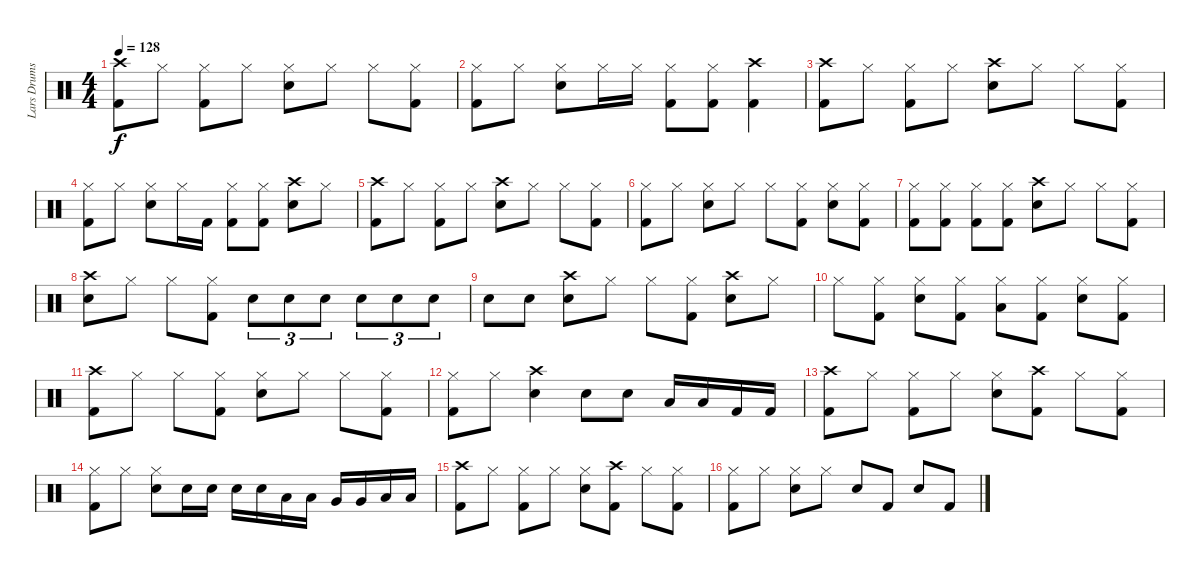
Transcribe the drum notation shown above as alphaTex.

\track ("Lars Drums" "Lars Drums") {instrument percussion}
\staff {score}
\articulation defaults
\ts (4 4)
\tempo 128
\clef neutral
\ks c
("Crash high (hit)" "Kick (hit) 2").8{dy f} "Hi-Hat (closed)".8 ("Hi-Hat (closed)" "Kick (hit) 2").8 "Hi-Hat (closed)".8 ("Hi-Hat (closed)" "Electric Snare (hit)").8 "Hi-Hat (closed)".8 "Hi-Hat (closed)".8 ("Hi-Hat (closed)" "Kick (hit) 2").8 |
("Hi-Hat (closed)" "Kick (hit) 2").8 "Hi-Hat (closed)".8 ("Hi-Hat (closed)" "Electric Snare (hit)").8 "Hi-Hat (closed)".16 "Hi-Hat (closed)".16 ("Hi-Hat (closed)" "Kick (hit) 2").8 ("Hi-Hat (closed)" "Kick (hit) 2").8 ("Crash high (hit)" "Kick (hit) 2").4 |
("Crash high (hit)" "Kick (hit) 2").8 "Hi-Hat (closed)".8 ("Hi-Hat (closed)" "Kick (hit) 2").8 "Hi-Hat (closed)".8 ("Crash high (hit)" "Electric Snare (hit)").8 "Hi-Hat (closed)".8 "Hi-Hat (closed)".8 ("Hi-Hat (closed)" "Kick (hit) 2").8 |
("Hi-Hat (closed)" "Kick (hit) 2").8 "Hi-Hat (closed)".8 ("Hi-Hat (closed)" "Electric Snare (hit)").8 "Hi-Hat (closed)".16 "Kick (hit) 2".16 ("Hi-Hat (closed)" "Kick (hit) 2").8 ("Hi-Hat (closed)" "Kick (hit) 2").8 ("Crash high (hit)" "Electric Snare (hit)").8 "Hi-Hat (closed)".8 |
("Crash high (hit)" "Kick (hit) 2").8 "Hi-Hat (closed)".8 ("Hi-Hat (closed)" "Kick (hit) 2").8 "Hi-Hat (closed)".8 ("Crash high (hit)" "Electric Snare (hit)").8 "Hi-Hat (closed)".8 "Hi-Hat (closed)".8 ("Hi-Hat (closed)" "Kick (hit) 2").8 |
("Hi-Hat (closed)" "Kick (hit) 2").8 "Hi-Hat (closed)".8 ("Hi-Hat (closed)" "Electric Snare (hit)").8 "Hi-Hat (closed)".8 "Hi-Hat (closed)".8 ("Hi-Hat (closed)" "Kick (hit) 2").8 ("Hi-Hat (closed)" "Electric Snare (hit)").8 ("Hi-Hat (closed)" "Kick (hit) 2").8 |
("Hi-Hat (closed)" "Kick (hit) 2").8 ("Hi-Hat (closed)" "Kick (hit) 2").8 ("Hi-Hat (closed)" "Kick (hit) 2").8 ("Hi-Hat (closed)" "Kick (hit) 2").8 ("Crash high (hit)" "Electric Snare (hit)").8 "Hi-Hat (closed)".8 "Hi-Hat (closed)".8 ("Hi-Hat (closed)" "Kick (hit) 2").8 |
("Crash high (hit)" "Electric Snare (hit)").8 "Hi-Hat (closed)".8 "Hi-Hat (closed)".8 ("Hi-Hat (closed)" "Kick (hit) 2").8 "Electric Snare (hit)".8{tu (3 2)} "Electric Snare (hit)".8{tu (3 2)} "Electric Snare (hit)".8{tu (3 2)} "Electric Snare (hit)".8{tu (3 2)} "Electric Snare (hit)".8{tu (3 2)} "Electric Snare (hit)".8{tu (3 2)} |
"Electric Snare (hit)".8 "Electric Snare (hit)".8 ("Crash high (hit)" "Electric Snare (hit)").8 "Hi-Hat (closed)".8 "Hi-Hat (closed)".8 ("Hi-Hat (closed)" "Kick (hit) 2").8 ("Crash high (hit)" "Electric Snare (hit)").8 "Hi-Hat (closed)".8 |
"Hi-Hat (closed)".8 ("Hi-Hat (closed)" "Kick (hit) 2").8 ("Hi-Hat (closed)" "Electric Snare (hit)").8 ("Hi-Hat (closed)" "Kick (hit) 2").8 ("Hi-Hat (closed)" "Low Floor Tom (hit)").8 ("Hi-Hat (closed)" "Kick (hit) 2").8 ("Hi-Hat (closed)" "Electric Snare (hit)").8 ("Hi-Hat (closed)" "Kick (hit) 2").8 |
("Crash high (hit)" "Kick (hit) 2").8 "Hi-Hat (closed)".8 "Hi-Hat (closed)".8 ("Hi-Hat (closed)" "Kick (hit) 2").8 ("Hi-Hat (closed)" "Electric Snare (hit)").8 "Hi-Hat (closed)".8 "Hi-Hat (closed)".8 ("Hi-Hat (closed)" "Kick (hit) 2").8 |
("Hi-Hat (closed)" "Kick (hit) 2").8 "Hi-Hat (closed)".8 ("Crash high (hit)" "Electric Snare (hit)").4 "Electric Snare (hit)".8 "Electric Snare (hit)".8 "Low Floor Tom (hit)".16 "Low Floor Tom (hit)".16 "Kick (hit) 2".16 "Kick (hit) 2".16 |
("Crash high (hit)" "Kick (hit) 2").8 "Hi-Hat (closed)".8 ("Hi-Hat (closed)" "Kick (hit) 2").8 "Hi-Hat (closed)".8 ("Hi-Hat (closed)" "Electric Snare (hit)").8 ("Crash high (hit)" "Kick (hit) 2").8 "Hi-Hat (closed)".8 ("Hi-Hat (closed)" "Kick (hit) 2").8 |
("Hi-Hat (closed)" "Kick (hit) 2").8 "Hi-Hat (closed)".8 ("Hi-Hat (closed)" "Electric Snare (hit)").8 "Electric Snare (hit)".16 "Electric Snare (hit)".16 "Electric Snare (hit)".16 "Electric Snare (hit)".16 "Low Floor Tom (hit)".16 "Low Floor Tom (hit)".16 "Very Low Tom (hit)".16 "Very Low Tom (hit)".16 "Low Floor Tom (hit)".16 "Low Floor Tom (hit)".16 |
("Crash high (hit)" "Kick (hit) 2").8 "Hi-Hat (closed)".8 ("Hi-Hat (closed)" "Kick (hit) 2").8 "Hi-Hat (closed)".8 ("Hi-Hat (closed)" "Electric Snare (hit)").8 ("Crash high (hit)" "Kick (hit) 2").8 "Hi-Hat (closed)".8 ("Hi-Hat (closed)" "Kick (hit) 2").8 |
("Hi-Hat (closed)" "Kick (hit) 2").8 "Hi-Hat (closed)".8 ("Hi-Hat (closed)" "Electric Snare (hit)").8 "Hi-Hat (closed)".8 "Electric Snare (hit)".8 "Kick (hit) 2".8 "Electric Snare (hit)".8 "Kick (hit) 2".8
